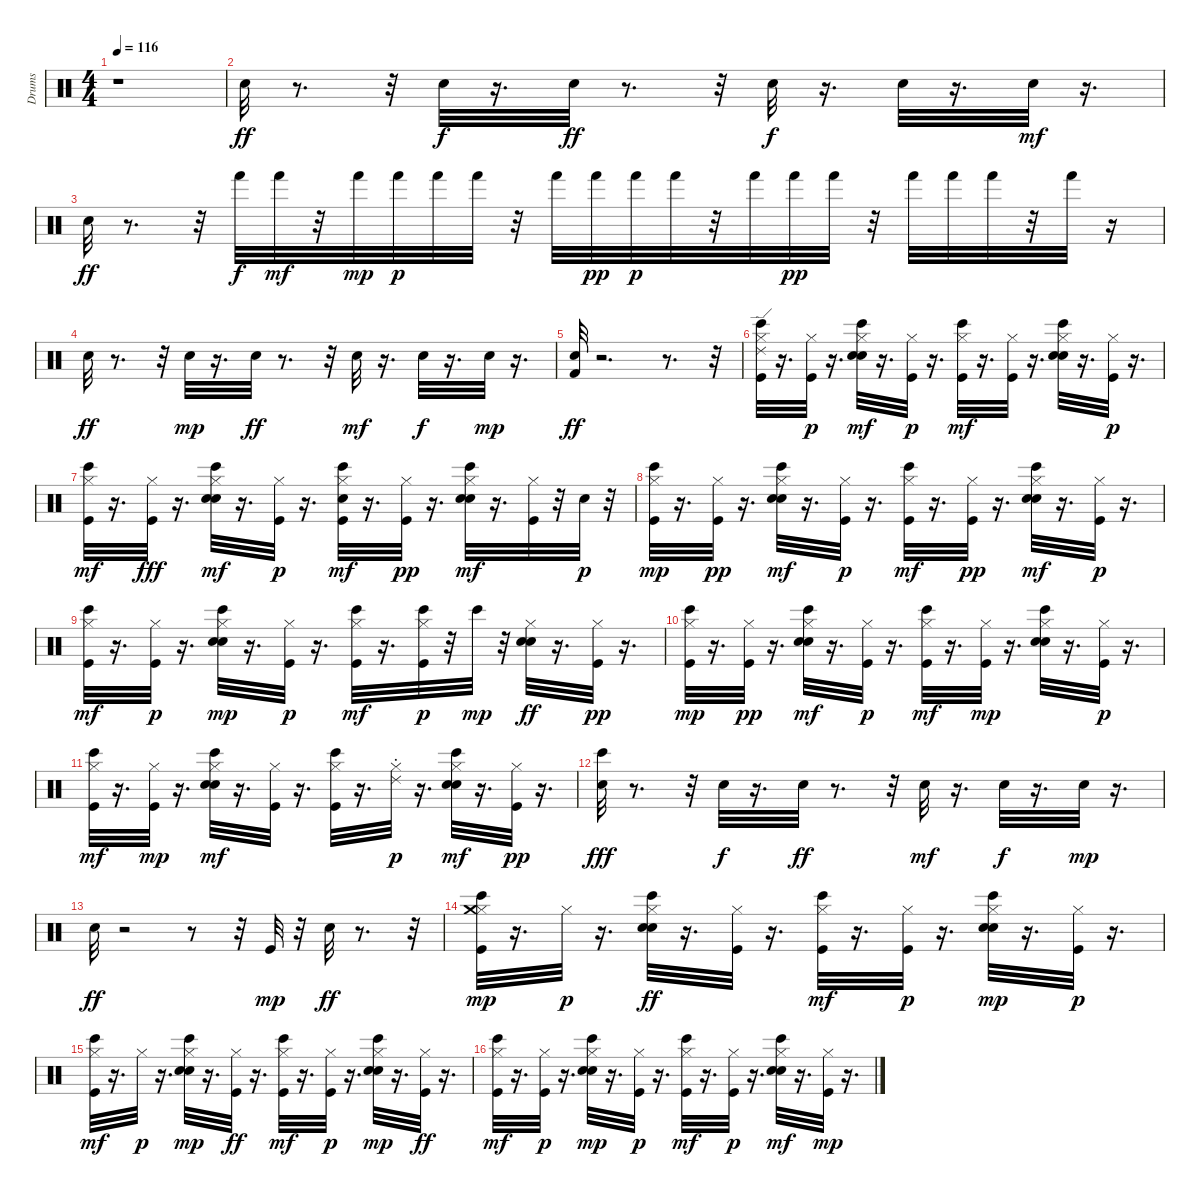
\track ("Drums" "Drums") {instrument percussion}
\staff {score}
\articulation defaults
\ts (4 4)
\tempo 116
\clef neutral
\ks c
r.1{dy ff} |
"Snare (hit) 2".32{balance 8} r.8{d} r.32 "Snare (hit) 2".32{dy f} r.16{d} "Snare (hit) 2".32{dy ff} r.8{d} r.32 "Snare (hit) 2".32{dy f} r.16{d} "Snare (hit) 2".32 r.16{d} "Snare (hit) 2".32{dy mf} r.16{d} |
"Snare (hit) 2".32{dy ff} r.8{d} r.32 "Hand (hit)".32{dy f} "Hand (hit)".32{dy mf} r.32 "Hand (hit)".32{dy mp} "Hand (hit)".32{dy p} "Hand (hit)".32 "Hand (hit)".32 r.32 "Hand (hit)".32 "Hand (hit)".32{dy pp} "Hand (hit)".32{dy p} "Hand (hit)".32 r.32 "Hand (hit)".32 "Hand (hit)".32{dy pp} "Hand (hit)".32 r.32 "Hand (hit)".32 "Hand (hit)".32 "Hand (hit)".32 r.32 "Hand (hit)".32 r.16 |
"Snare (hit) 2".32{dy ff} r.8{d} r.32 "Snare (hit) 2".32{dy mp} r.16{d} "Snare (hit) 2".32{dy ff} r.8{d} r.32 "Snare (hit) 2".32{dy mf} r.16{d} "Snare (hit) 2".32{dy f} r.16{d} "Snare (hit) 2".32{dy mp} r.16{d} |
("Kick (hit) 2" "Snare (hit) 2").32{dy ff} r.2{d} r.8{d} r.32 |
("Bongo High (hit)" "Ride (edge) 2" "Hi-Hat (closed)" "Kick (hit)").32 r.16{d} ("Kick (hit)" "Hi-Hat (closed)").32{dy p} r.16{d} ("Hi-Hat (closed)" "Electric Snare (hit)" "Snare (hit) 2" "Bongo High (hit)").32{dy mf} r.16{d} ("Kick (hit)" "Hi-Hat (closed)").32{dy p} r.16{d} ("Kick (hit)" "Hi-Hat (closed)" "Bongo High (hit)").32{dy mf} r.16{d} ("Hi-Hat (closed)" "Kick (hit)").32 r.16{d} ("Snare (hit) 2" "Hi-Hat (closed)" "Bongo High (hit)" "Electric Snare (hit)").32 r.16{d} ("Kick (hit)" "Hi-Hat (closed)").32{dy p} r.16{d} |
("Kick (hit)" "Bongo High (hit)" "Hi-Hat (closed)").32{dy mf} r.16{d} ("Hi-Hat (closed)" "Kick (hit)").32{dy fff} r.16{d} ("Hi-Hat (closed)" "Snare (hit) 2" "Electric Snare (hit)" "Bongo High (hit)").32{dy mf} r.16{d} ("Kick (hit)" "Hi-Hat (closed)").32{dy p} r.16{d} ("Kick (hit)" "Snare (hit)" "Hi-Hat (closed)" "Bongo High (hit)").32{dy mf} r.16{d} ("Kick (hit)" "Hi-Hat (closed)").32{dy pp} r.16{d} ("Snare (hit) 2" "Bongo High (hit)" "Hi-Hat (closed)" "Electric Snare (hit)").32{dy mf} r.16{d} ("Hi-Hat (closed)" "Kick (hit)").32 r.32 "Electric Snare (hit)".32{dy p} r.32 |
("Kick (hit)" "Bongo High (hit)" "Hi-Hat (closed)").32{dy mp} r.16{d} ("Kick (hit)" "Hi-Hat (closed)").32{dy pp} r.16{d} ("Snare (hit) 2" "Hi-Hat (closed)" "Electric Snare (hit)" "Bongo High (hit)").32{dy mf} r.16{d} ("Hi-Hat (closed)" "Kick (hit)").32{dy p} r.16{d} ("Kick (hit)" "Hi-Hat (closed)" "Bongo High (hit)").32{dy mf} r.16{d} ("Kick (hit)" "Hi-Hat (closed)").32{dy pp} r.16{d} ("Snare (hit) 2" "Hi-Hat (closed)" "Bongo High (hit)" "Electric Snare (hit)").32{dy mf} r.16{d} ("Hi-Hat (closed)" "Kick (hit)").32{dy p} r.16{d} |
("Hi-Hat (closed)" "Kick (hit)" "Bongo High (hit)").32{dy mf} r.16{d} ("Kick (hit)" "Hi-Hat (closed)").32{dy p} r.16{d} ("Snare (hit) 2" "Hi-Hat (closed)" "Bongo High (hit)" "Electric Snare (hit)").32{dy mp} r.16{d} ("Kick (hit)" "Hi-Hat (closed)").32{dy p} r.16{d} ("Kick (hit)" "Hi-Hat (closed)" "Bongo High (hit)").32{dy mf} r.16{d} ("Kick (hit)" "Bongo High (hit)" "Hi-Hat (closed)").32{dy p} r.32 "Bongo High (hit)".32{dy mp} r.32 ("Electric Snare (hit)" "Hi-Hat (closed)" "Snare (hit) 2").32{dy ff} r.16{d} ("Hi-Hat (closed)" "Kick (hit)").32{dy pp} r.16{d} |
("Kick (hit)" "Hi-Hat (closed)" "Bongo High (hit)").32{dy mp} r.16{d} ("Kick (hit)" "Hi-Hat (closed)").32{dy pp} r.16{d} ("Snare (hit) 2" "Hi-Hat (closed)" "Bongo High (hit)" "Electric Snare (hit)").32{dy mf} r.16{d} ("Kick (hit)" "Hi-Hat (closed)").32{dy p} r.16{d} ("Kick (hit)" "Bongo High (hit)" "Hi-Hat (closed)").32{dy mf} r.16{d} ("Hi-Hat (closed)" "Kick (hit)").32{dy mp} r.16{d} ("Snare (hit) 2" "Hi-Hat (closed)" "Bongo High (hit)" "Electric Snare (hit)").32 r.16{d} ("Kick (hit)" "Hi-Hat (closed)").32{dy p} r.16{d} |
("Hi-Hat (closed)" "Kick (hit)" "Bongo High (hit)").32{dy mf} r.16{d} ("Hi-Hat (closed)" "Kick (hit)").32{dy mp} r.16{d} ("Electric Snare (hit)" "Snare (hit) 2" "Hi-Hat (closed)" "Bongo High (hit)").32{dy mf} r.16{d} ("Hi-Hat (closed)" "Kick (hit)").32 r.16{d} ("Bongo High (hit)" "Hi-Hat (closed)" "Kick (hit)").32 r.16{d} ("Ride (choke) 2" "Hi-Hat (closed)").32{dy p} r.16{d} ("Electric Snare (hit)" "Bongo High (hit)" "Snare (hit) 2" "Hi-Hat (closed)").32{dy mf} r.16{d} ("Kick (hit)" "Hi-Hat (closed)").32{dy pp} r.16{d} |
("Bongo High (hit)" "Snare (hit) 2").32{dy fff} r.8{d} r.32 "Snare (hit) 2".32{dy f} r.16{d} "Snare (hit) 2".32{dy ff} r.8{d} r.32 "Snare (hit) 2".32{dy mf} r.16{d} "Snare (hit) 2".32{dy f} r.16{d} "Snare (hit) 2".32{dy mp} r.16{d} |
"Snare (hit) 2".32{dy ff} r.2 r.8 r.32 "Kick (hit)".32{dy mp} r.32 "Electric Snare (hit)".32{dy ff} r.8{d} r.32 |
("Kick (hit)" "Hi-Hat (closed)" "Bongo High (hit)" "Crash medium (hit)").32{dy mp} r.16{d} "Hi-Hat (closed)".32{dy p} r.16{d} ("Electric Snare (hit)" "Hi-Hat (closed)" "Bongo High (hit)" "Snare (hit) 2").32{dy ff} r.16{d} ("Hi-Hat (closed)" "Kick (hit)").32 r.16{d} ("Kick (hit)" "Hi-Hat (closed)" "Bongo High (hit)").32{dy mf} r.16{d} ("Kick (hit)" "Hi-Hat (closed)").32{dy p} r.16{d} ("Snare (hit) 2" "Hi-Hat (closed)" "Bongo High (hit)" "Electric Snare (hit)").32{dy mp} r.16{d} ("Kick (hit)" "Hi-Hat (closed)").32{dy p} r.16{d} |
("Kick (hit)" "Bongo High (hit)" "Hi-Hat (closed)").32{dy mf} r.16{d} "Hi-Hat (closed)".32{dy p} r.16{d} ("Hi-Hat (closed)" "Snare (hit) 2" "Bongo High (hit)" "Electric Snare (hit)").32{dy mp} r.16{d} ("Hi-Hat (closed)" "Kick (hit)").32{dy ff} r.16{d} ("Kick (hit)" "Hi-Hat (closed)" "Bongo High (hit)").32{dy mf} r.16{d} ("Hi-Hat (closed)" "Kick (hit)").32{dy p} r.16{d} ("Snare (hit) 2" "Hi-Hat (closed)" "Bongo High (hit)" "Electric Snare (hit)").32{dy mp} r.16{d} ("Hi-Hat (closed)" "Kick (hit)").32{dy ff} r.16{d} |
("Kick (hit)" "Bongo High (hit)" "Hi-Hat (closed)").32{dy mf} r.16{d} ("Hi-Hat (closed)" "Kick (hit)").32{dy p} r.16{d} ("Bongo High (hit)" "Hi-Hat (closed)" "Snare (hit) 2" "Electric Snare (hit)").32{dy mp} r.16{d} ("Kick (hit)" "Hi-Hat (closed)").32{dy p} r.16{d} ("Kick (hit)" "Bongo High (hit)" "Hi-Hat (closed)").32{dy mf} r.16{d} ("Kick (hit)" "Hi-Hat (closed)").32{dy p} r.16{d} ("Bongo High (hit)" "Electric Snare (hit)" "Hi-Hat (closed)" "Snare (hit) 2").32{dy mf} r.16{d} ("Hi-Hat (closed)" "Kick (hit)").32{dy mp} r.16{d}
